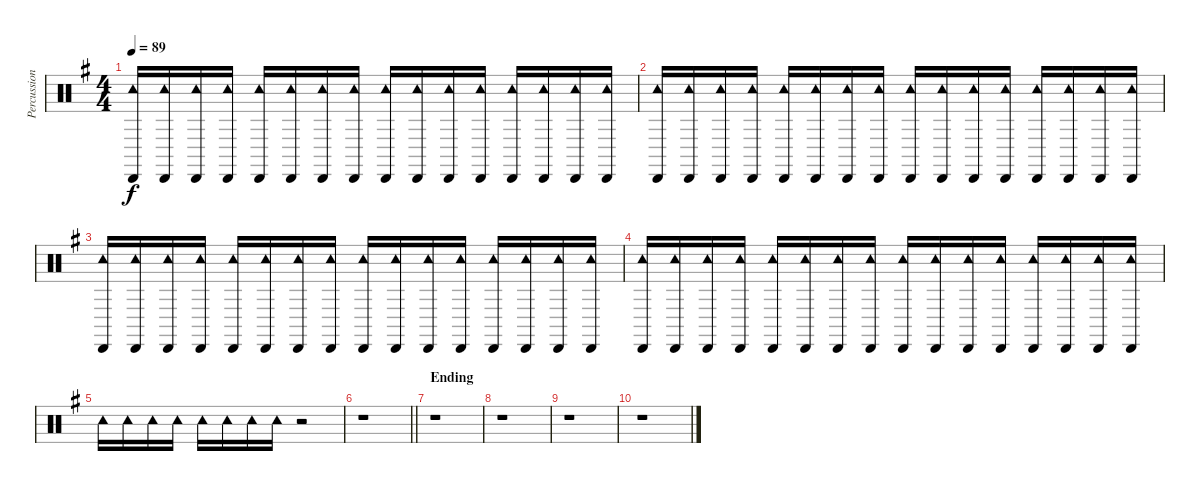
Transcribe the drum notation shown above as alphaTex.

\track ("Percussion" "Percussion") {instrument percussion}
\staff {score}
\articulation defaults
\ts (4 4)
\tempo 89
\clef neutral
\ks g
("Tambourine (hit)" "Cabasa (hit)").16{dy f} ("Tambourine (hit)" "Cabasa (hit)").16 ("Tambourine (hit)" "Cabasa (hit)").16 ("Tambourine (hit)" "Cabasa (hit)").16 ("Tambourine (hit)" "Cabasa (hit)").16 ("Tambourine (hit)" "Cabasa (hit)").16 ("Tambourine (hit)" "Cabasa (hit)").16 ("Tambourine (hit)" "Cabasa (hit)").16 ("Tambourine (hit)" "Cabasa (hit)").16 ("Tambourine (hit)" "Cabasa (hit)").16 ("Tambourine (hit)" "Cabasa (hit)").16 ("Tambourine (hit)" "Cabasa (hit)").16 ("Tambourine (hit)" "Cabasa (hit)").16 ("Tambourine (hit)" "Cabasa (hit)").16 ("Tambourine (hit)" "Cabasa (hit)").16 ("Tambourine (hit)" "Cabasa (hit)").16 |
("Tambourine (hit)" "Cabasa (hit)").16 ("Tambourine (hit)" "Cabasa (hit)").16 ("Tambourine (hit)" "Cabasa (hit)").16 ("Tambourine (hit)" "Cabasa (hit)").16 ("Tambourine (hit)" "Cabasa (hit)").16 ("Tambourine (hit)" "Cabasa (hit)").16 ("Tambourine (hit)" "Cabasa (hit)").16 ("Tambourine (hit)" "Cabasa (hit)").16 ("Tambourine (hit)" "Cabasa (hit)").16 ("Tambourine (hit)" "Cabasa (hit)").16 ("Tambourine (hit)" "Cabasa (hit)").16 ("Tambourine (hit)" "Cabasa (hit)").16 ("Tambourine (hit)" "Cabasa (hit)").16 ("Tambourine (hit)" "Cabasa (hit)").16 ("Tambourine (hit)" "Cabasa (hit)").16 ("Tambourine (hit)" "Cabasa (hit)").16 |
("Tambourine (hit)" "Cabasa (hit)").16 ("Tambourine (hit)" "Cabasa (hit)").16 ("Tambourine (hit)" "Cabasa (hit)").16 ("Tambourine (hit)" "Cabasa (hit)").16 ("Tambourine (hit)" "Cabasa (hit)").16 ("Tambourine (hit)" "Cabasa (hit)").16 ("Tambourine (hit)" "Cabasa (hit)").16 ("Tambourine (hit)" "Cabasa (hit)").16 ("Tambourine (hit)" "Cabasa (hit)").16 ("Tambourine (hit)" "Cabasa (hit)").16 ("Tambourine (hit)" "Cabasa (hit)").16 ("Tambourine (hit)" "Cabasa (hit)").16 ("Tambourine (hit)" "Cabasa (hit)").16 ("Tambourine (hit)" "Cabasa (hit)").16 ("Tambourine (hit)" "Cabasa (hit)").16 ("Tambourine (hit)" "Cabasa (hit)").16 |
("Tambourine (hit)" "Cabasa (hit)").16 ("Tambourine (hit)" "Cabasa (hit)").16 ("Tambourine (hit)" "Cabasa (hit)").16 ("Tambourine (hit)" "Cabasa (hit)").16 ("Tambourine (hit)" "Cabasa (hit)").16 ("Tambourine (hit)" "Cabasa (hit)").16 ("Tambourine (hit)" "Cabasa (hit)").16 ("Tambourine (hit)" "Cabasa (hit)").16 ("Tambourine (hit)" "Cabasa (hit)").16 ("Tambourine (hit)" "Cabasa (hit)").16 ("Tambourine (hit)" "Cabasa (hit)").16 ("Tambourine (hit)" "Cabasa (hit)").16 ("Tambourine (hit)" "Cabasa (hit)").16 ("Tambourine (hit)" "Cabasa (hit)").16 ("Tambourine (hit)" "Cabasa (hit)").16 ("Tambourine (hit)" "Cabasa (hit)").16 |
"Tambourine (hit)".16 "Tambourine (hit)".16 "Tambourine (hit)".16 "Tambourine (hit)".16 "Tambourine (hit)".16 "Tambourine (hit)".16 "Tambourine (hit)".16 "Tambourine (hit)".16 r.2 |
\barLineRight lightlight
r.1 |
\section ("" "Ending")
r.1 |
r.1 |
r.1 |
r.1
